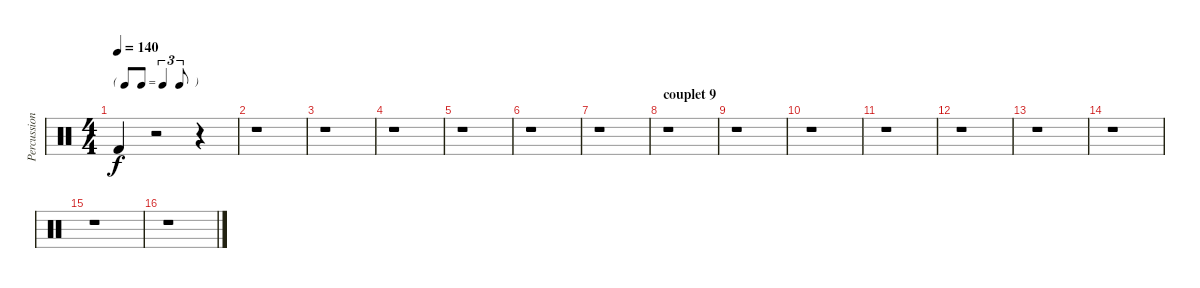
\track ("Percussions" "Percussion") {instrument percussion}
\staff {score}
\articulation defaults
\ts (4 4)
\tf triplet8th
\tempo 140
\clef neutral
\ks c "Kick (hit) 2".4{dy f}
r.2 r.4 |
r.1 |
r.1 |
r.1 |
r.1 |
r.1 |
r.1 |
\section ("" "couplet 9")
r.1 |
r.1 |
r.1 |
r.1 |
r.1 |
r.1 |
r.1 |
r.1 |
r.1
